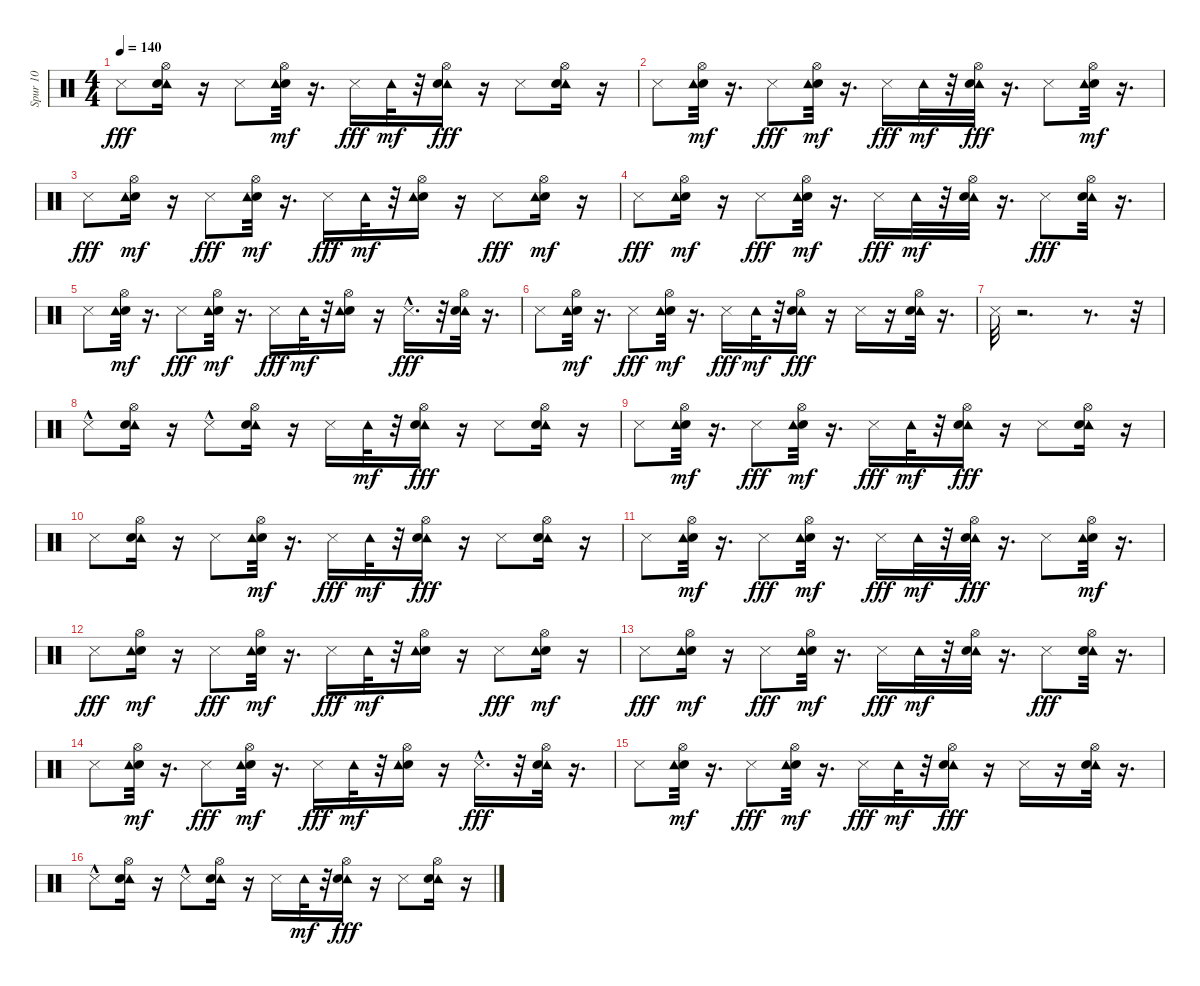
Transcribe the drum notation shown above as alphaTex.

\track ("Spur 10" "Spur 10") {instrument percussion}
\staff {score}
\articulation defaults
\ts (4 4)
\tempo 140
\clef neutral
\ks c "Metronome (hit)".8{dy fff}
("Tambourine (hit)" "Hi-Hat (open)" "Snare (hit)").16 r.16 "Metronome (hit)".8 ("Hi-Hat (open)" "Snare (hit)" "Tambourine (hit)").32{dy mf} r.16{d} "Metronome (hit)".16{dy fff} "Tambourine (hit)".32{dy mf} r.32 ("Tambourine (hit)" "Hi-Hat (open)" "Snare (hit)").16{dy fff} r.16 "Metronome (hit)".8 ("Tambourine (hit)" "Hi-Hat (open)" "Snare (hit)").16 r.16 |
"Metronome (hit)".8 ("Snare (hit)" "Hi-Hat (open)" "Tambourine (hit)").32{dy mf} r.16{d} "Metronome (hit)".8{dy fff} ("Hi-Hat (open)" "Snare (hit)" "Tambourine (hit)").32{dy mf} r.16{d} "Metronome (hit)".16{dy fff} "Tambourine (hit)".32{dy mf} r.32 ("Tambourine (hit)" "Hi-Hat (open)" "Snare (hit)").32{dy fff} r.16{d} "Metronome (hit)".8 ("Hi-Hat (open)" "Snare (hit)" "Tambourine (hit)").32{dy mf} r.16{d} |
"Metronome (hit)".8{dy fff} ("Hi-Hat (open)" "Snare (hit)" "Tambourine (hit)").16{dy mf} r.16 "Metronome (hit)".8{dy fff} ("Hi-Hat (open)" "Snare (hit)" "Tambourine (hit)").32{dy mf} r.16{d} "Metronome (hit)".16{dy fff} "Tambourine (hit)".32{dy mf} r.32 ("Hi-Hat (open)" "Snare (hit)" "Tambourine (hit)").16 r.16 "Metronome (hit)".8{dy fff} ("Snare (hit)" "Hi-Hat (open)" "Tambourine (hit)").16{dy mf} r.16 |
"Metronome (hit)".8{dy fff} ("Hi-Hat (open)" "Snare (hit)" "Tambourine (hit)").16{dy mf} r.16 "Metronome (hit)".8{dy fff} ("Hi-Hat (open)" "Snare (hit)" "Tambourine (hit)").32{dy mf} r.16{d} "Metronome (hit)".16{dy fff} "Tambourine (hit)".32{dy mf} r.32 ("Tambourine (hit)" "Snare (hit)" "Hi-Hat (open)").32 r.16{d} "Metronome (hit)".8{dy fff} ("Tambourine (hit)" "Hi-Hat (open)" "Snare (hit)").32 r.16{d} |
"Metronome (hit)".8 ("Hi-Hat (open)" "Snare (hit)" "Tambourine (hit)").32{dy mf} r.16{d} "Metronome (hit)".8{dy fff} ("Hi-Hat (open)" "Snare (hit)" "Tambourine (hit)").32{dy mf} r.16{d} "Metronome (hit)".16{dy fff} "Tambourine (hit)".32{dy mf} r.32 ("Hi-Hat (open)" "Snare (hit)" "Tambourine (hit)").16 r.16 "Metronome (hit)"{hac}.16{d dy fff} r.32 ("Tambourine (hit)" "Hi-Hat (open)" "Snare (hit)").32 r.16{d} |
"Metronome (hit)".8 ("Hi-Hat (open)" "Snare (hit)" "Tambourine (hit)").32{dy mf} r.16{d} "Metronome (hit)".8{dy fff} ("Hi-Hat (open)" "Snare (hit)" "Tambourine (hit)").32{dy mf} r.16{d} "Metronome (hit)".16{dy fff} "Tambourine (hit)".32{dy mf} r.32 ("Tambourine (hit)" "Hi-Hat (open)" "Snare (hit)").16{dy fff} r.16 "Metronome (hit)".16 r.16 ("Tambourine (hit)" "Hi-Hat (open)" "Snare (hit)").32 r.16{d} |
"Metronome (hit)".32 r.2{d} r.8{d} r.32 |
"Metronome (hit)"{hac}.8 ("Tambourine (hit)" "Hi-Hat (open)" "Snare (hit)").16 r.16 "Metronome (hit)"{hac}.8 ("Tambourine (hit)" "Hi-Hat (open)" "Snare (hit)").16 r.16 "Metronome (hit)".16 "Tambourine (hit)".32{dy mf} r.32 ("Tambourine (hit)" "Hi-Hat (open)" "Snare (hit)").16{dy fff} r.16 "Metronome (hit)".8 ("Tambourine (hit)" "Hi-Hat (open)" "Snare (hit)").16 r.16 |
"Metronome (hit)".8 ("Hi-Hat (open)" "Snare (hit)" "Tambourine (hit)").32{dy mf} r.16{d} "Metronome (hit)".8{dy fff} ("Hi-Hat (open)" "Snare (hit)" "Tambourine (hit)").32{dy mf} r.16{d} "Metronome (hit)".16{dy fff} "Tambourine (hit)".32{dy mf} r.32 ("Tambourine (hit)" "Hi-Hat (open)" "Snare (hit)").16{dy fff} r.16 "Metronome (hit)".8 ("Tambourine (hit)" "Hi-Hat (open)" "Snare (hit)").16 r.16 |
"Metronome (hit)".8 ("Tambourine (hit)" "Hi-Hat (open)" "Snare (hit)").16 r.16 "Metronome (hit)".8 ("Hi-Hat (open)" "Snare (hit)" "Tambourine (hit)").32{dy mf} r.16{d} "Metronome (hit)".16{dy fff} "Tambourine (hit)".32{dy mf} r.32 ("Tambourine (hit)" "Hi-Hat (open)" "Snare (hit)").16{dy fff} r.16 "Metronome (hit)".8 ("Tambourine (hit)" "Hi-Hat (open)" "Snare (hit)").16 r.16 |
"Metronome (hit)".8 ("Snare (hit)" "Hi-Hat (open)" "Tambourine (hit)").32{dy mf} r.16{d} "Metronome (hit)".8{dy fff} ("Hi-Hat (open)" "Snare (hit)" "Tambourine (hit)").32{dy mf} r.16{d} "Metronome (hit)".16{dy fff} "Tambourine (hit)".32{dy mf} r.32 ("Tambourine (hit)" "Hi-Hat (open)" "Snare (hit)").32{dy fff} r.16{d} "Metronome (hit)".8 ("Hi-Hat (open)" "Snare (hit)" "Tambourine (hit)").32{dy mf} r.16{d} |
"Metronome (hit)".8{dy fff} ("Hi-Hat (open)" "Snare (hit)" "Tambourine (hit)").16{dy mf} r.16 "Metronome (hit)".8{dy fff} ("Hi-Hat (open)" "Snare (hit)" "Tambourine (hit)").32{dy mf} r.16{d} "Metronome (hit)".16{dy fff} "Tambourine (hit)".32{dy mf} r.32 ("Hi-Hat (open)" "Snare (hit)" "Tambourine (hit)").16 r.16 "Metronome (hit)".8{dy fff} ("Snare (hit)" "Hi-Hat (open)" "Tambourine (hit)").16{dy mf} r.16 |
"Metronome (hit)".8{dy fff} ("Hi-Hat (open)" "Snare (hit)" "Tambourine (hit)").16{dy mf} r.16 "Metronome (hit)".8{dy fff} ("Hi-Hat (open)" "Snare (hit)" "Tambourine (hit)").32{dy mf} r.16{d} "Metronome (hit)".16{dy fff} "Tambourine (hit)".32{dy mf} r.32 ("Tambourine (hit)" "Snare (hit)" "Hi-Hat (open)").32 r.16{d} "Metronome (hit)".8{dy fff} ("Tambourine (hit)" "Hi-Hat (open)" "Snare (hit)").32 r.16{d} |
"Metronome (hit)".8 ("Hi-Hat (open)" "Snare (hit)" "Tambourine (hit)").32{dy mf} r.16{d} "Metronome (hit)".8{dy fff} ("Hi-Hat (open)" "Snare (hit)" "Tambourine (hit)").32{dy mf} r.16{d} "Metronome (hit)".16{dy fff} "Tambourine (hit)".32{dy mf} r.32 ("Hi-Hat (open)" "Snare (hit)" "Tambourine (hit)").16 r.16 "Metronome (hit)"{hac}.16{d dy fff} r.32 ("Tambourine (hit)" "Hi-Hat (open)" "Snare (hit)").32 r.16{d} |
"Metronome (hit)".8 ("Hi-Hat (open)" "Snare (hit)" "Tambourine (hit)").32{dy mf} r.16{d} "Metronome (hit)".8{dy fff} ("Hi-Hat (open)" "Snare (hit)" "Tambourine (hit)").32{dy mf} r.16{d} "Metronome (hit)".16{dy fff} "Tambourine (hit)".32{dy mf} r.32 ("Tambourine (hit)" "Hi-Hat (open)" "Snare (hit)").16{dy fff} r.16 "Metronome (hit)".16 r.16 ("Tambourine (hit)" "Hi-Hat (open)" "Snare (hit)").32 r.16{d} |
"Metronome (hit)"{hac}.8 ("Tambourine (hit)" "Hi-Hat (open)" "Snare (hit)").16 r.16 "Metronome (hit)"{hac}.8 ("Tambourine (hit)" "Hi-Hat (open)" "Snare (hit)").16 r.16 "Metronome (hit)".16 "Tambourine (hit)".32{dy mf} r.32 ("Tambourine (hit)" "Hi-Hat (open)" "Snare (hit)").16{dy fff} r.16 "Metronome (hit)".8 ("Tambourine (hit)" "Hi-Hat (open)" "Snare (hit)").16 r.16
